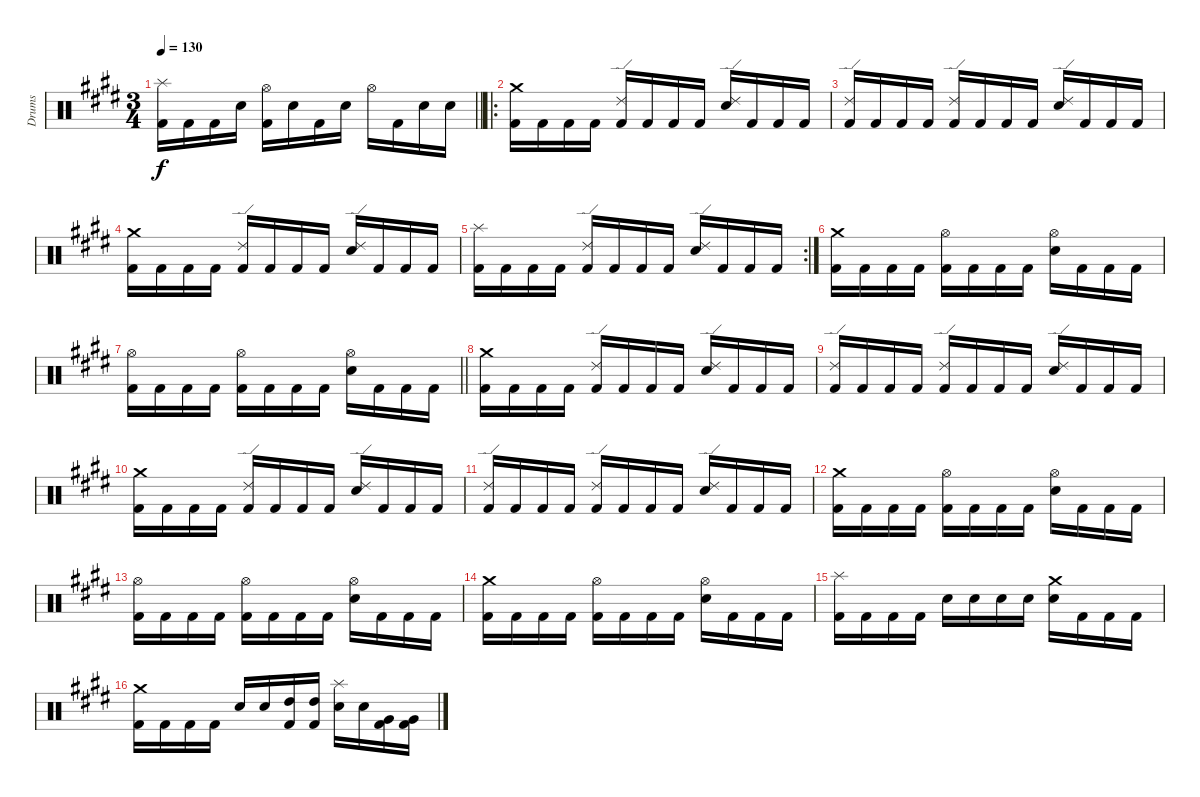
\track ("Drums" "Drums") {instrument percussion}
\staff {score}
\articulation defaults
\ts (3 4)
\tempo 130
\clef neutral
\barLineRight lightlight
\ks e
("Kick (hit) 2" "Splash (hit)").16{dy f} "Kick (hit) 2".16 "Kick (hit) 2".16 "Electric Snare (hit)".16 ("Kick (hit) 2" "Hi-Hat (open)").16 "Electric Snare (hit)".16 "Kick (hit) 2".16 "Electric Snare (hit)".16 "Hi-Hat (open)".16 "Kick (hit) 2".16 "Electric Snare (hit)".16 "Electric Snare (hit)".16 |
\ro
("Kick (hit) 2" "Crash medium (hit)").16 "Kick (hit) 2".16 "Kick (hit) 2".16 "Kick (hit) 2".16 ("Kick (hit) 2" "Ride (edge) 2").16 "Kick (hit) 2".16 "Kick (hit) 2".16 "Kick (hit) 2".16 ("Electric Snare (hit)" "Ride (edge) 2").16 "Kick (hit) 2".16 "Kick (hit) 2".16 "Kick (hit) 2".16 |
("Kick (hit) 2" "Ride (edge) 2").16 "Kick (hit) 2".16 "Kick (hit) 2".16 "Kick (hit) 2".16 ("Kick (hit) 2" "Ride (edge) 2").16 "Kick (hit) 2".16 "Kick (hit) 2".16 "Kick (hit) 2".16 ("Electric Snare (hit)" "Ride (edge) 2").16 "Kick (hit) 2".16 "Kick (hit) 2".16 "Kick (hit) 2".16 |
("Kick (hit) 2" "Crash medium (hit)").16 "Kick (hit) 2".16 "Kick (hit) 2".16 "Kick (hit) 2".16 ("Kick (hit) 2" "Ride (edge) 2").16 "Kick (hit) 2".16 "Kick (hit) 2".16 "Kick (hit) 2".16 ("Electric Snare (hit)" "Ride (edge) 2").16 "Kick (hit) 2".16 "Kick (hit) 2".16 "Kick (hit) 2".16 |
\rc 2
("Kick (hit) 2" "Splash (hit)").16 "Kick (hit) 2".16 "Kick (hit) 2".16 "Kick (hit) 2".16 ("Kick (hit) 2" "Ride (edge) 2").16 "Kick (hit) 2".16 "Kick (hit) 2".16 "Kick (hit) 2".16 ("Electric Snare (hit)" "Ride (edge) 2").16 "Kick (hit) 2".16 "Kick (hit) 2".16 "Kick (hit) 2".16 |
("Kick (hit) 2" "Crash medium (hit)").16 "Kick (hit) 2".16 "Kick (hit) 2".16 "Kick (hit) 2".16 ("Kick (hit) 2" "Hi-Hat (open)").16 "Kick (hit) 2".16 "Kick (hit) 2".16 "Kick (hit) 2".16 ("Electric Snare (hit)" "Hi-Hat (open)").16 "Kick (hit) 2".16 "Kick (hit) 2".16 "Kick (hit) 2".16 |
\barLineRight lightlight
("Kick (hit) 2" "Hi-Hat (open)").16 "Kick (hit) 2".16 "Kick (hit) 2".16 "Kick (hit) 2".16 ("Kick (hit) 2" "Hi-Hat (open)").16 "Kick (hit) 2".16 "Kick (hit) 2".16 "Kick (hit) 2".16 ("Electric Snare (hit)" "Hi-Hat (open)").16 "Kick (hit) 2".16 "Kick (hit) 2".16 "Kick (hit) 2".16 |
("Kick (hit) 2" "Crash medium (hit)").16 "Kick (hit) 2".16 "Kick (hit) 2".16 "Kick (hit) 2".16 ("Kick (hit) 2" "Ride (edge) 2").16 "Kick (hit) 2".16 "Kick (hit) 2".16 "Kick (hit) 2".16 ("Electric Snare (hit)" "Ride (edge) 2").16 "Kick (hit) 2".16 "Kick (hit) 2".16 "Kick (hit) 2".16 |
("Kick (hit) 2" "Ride (edge) 2").16 "Kick (hit) 2".16 "Kick (hit) 2".16 "Kick (hit) 2".16 ("Kick (hit) 2" "Ride (edge) 2").16 "Kick (hit) 2".16 "Kick (hit) 2".16 "Kick (hit) 2".16 ("Electric Snare (hit)" "Ride (edge) 2").16 "Kick (hit) 2".16 "Kick (hit) 2".16 "Kick (hit) 2".16 |
("Kick (hit) 2" "Crash medium (hit)").16 "Kick (hit) 2".16 "Kick (hit) 2".16 "Kick (hit) 2".16 ("Kick (hit) 2" "Ride (edge) 2").16 "Kick (hit) 2".16 "Kick (hit) 2".16 "Kick (hit) 2".16 ("Electric Snare (hit)" "Ride (edge) 2").16 "Kick (hit) 2".16 "Kick (hit) 2".16 "Kick (hit) 2".16 |
("Kick (hit) 2" "Ride (edge) 2").16 "Kick (hit) 2".16 "Kick (hit) 2".16 "Kick (hit) 2".16 ("Kick (hit) 2" "Ride (edge) 2").16 "Kick (hit) 2".16 "Kick (hit) 2".16 "Kick (hit) 2".16 ("Electric Snare (hit)" "Ride (edge) 2").16 "Kick (hit) 2".16 "Kick (hit) 2".16 "Kick (hit) 2".16 |
("Kick (hit) 2" "Crash medium (hit)").16 "Kick (hit) 2".16 "Kick (hit) 2".16 "Kick (hit) 2".16 ("Kick (hit) 2" "Hi-Hat (open)").16 "Kick (hit) 2".16 "Kick (hit) 2".16 "Kick (hit) 2".16 ("Electric Snare (hit)" "Hi-Hat (open)").16 "Kick (hit) 2".16 "Kick (hit) 2".16 "Kick (hit) 2".16 |
("Kick (hit) 2" "Hi-Hat (open)").16 "Kick (hit) 2".16 "Kick (hit) 2".16 "Kick (hit) 2".16 ("Kick (hit) 2" "Hi-Hat (open)").16 "Kick (hit) 2".16 "Kick (hit) 2".16 "Kick (hit) 2".16 ("Electric Snare (hit)" "Hi-Hat (open)").16 "Kick (hit) 2".16 "Kick (hit) 2".16 "Kick (hit) 2".16 |
("Kick (hit) 2" "Crash medium (hit)").16 "Kick (hit) 2".16 "Kick (hit) 2".16 "Kick (hit) 2".16 ("Kick (hit) 2" "Hi-Hat (open)").16 "Kick (hit) 2".16 "Kick (hit) 2".16 "Kick (hit) 2".16 ("Electric Snare (hit)" "Hi-Hat (open)").16 "Kick (hit) 2".16 "Kick (hit) 2".16 "Kick (hit) 2".16 |
("Kick (hit) 2" "Splash (hit)").16 "Kick (hit) 2".16 "Kick (hit) 2".16 "Kick (hit) 2".16 "Electric Snare (hit)".16 "Electric Snare (hit)".16 "Electric Snare (hit)".16 "Electric Snare (hit)".16 ("Electric Snare (hit)" "Crash medium (hit)").16 "Kick (hit) 2".16 "Kick (hit) 2".16 "Kick (hit) 2".16 |
("Kick (hit) 2" "Crash medium (hit)").16 "Kick (hit) 2".16 "Kick (hit) 2".16 "Kick (hit) 2".16 "Electric Snare (hit)".16 "Electric Snare (hit)".16 ("Kick (hit) 2" "High Tom (hit)").16 ("Kick (hit) 2" "High Tom (hit)").16 ("Splash (hit)" "Electric Snare (hit)").16 "Electric Snare (hit)".16 ("Kick (hit) 2" "Very Low Tom (hit)").16 ("Kick (hit) 2" "Very Low Tom (hit)").16
